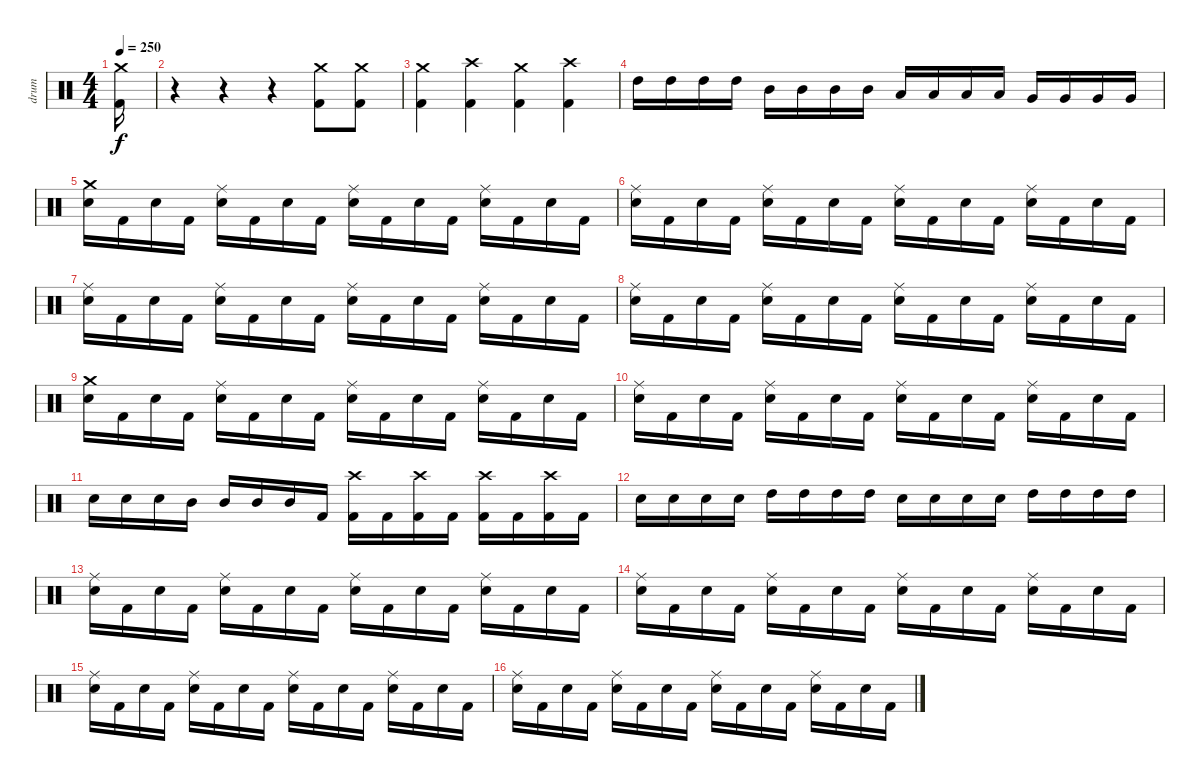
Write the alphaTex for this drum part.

\track ("drum" "drum") {instrument percussion}
\staff {score}
\articulation defaults
\ts (4 4)
\tempo 250
\clef neutral
\ks c
("Crash medium (hit)" "Kick (hit) 2").16{dy f} |
r.4 r.4 r.4 ("Crash medium (hit)" "Kick (hit) 2").8 ("Crash medium (hit)" "Kick (hit) 2").8 |
("Crash medium (hit)" "Kick (hit) 2").4 ("Crash high (hit)" "Kick (hit) 2").4 ("Crash medium (hit)" "Kick (hit) 2").4 ("Crash high (hit)" "Kick (hit) 2").4 |
"High Tom (hit)".16 "High Tom (hit)".16 "High Tom (hit)".16 "High Tom (hit)".16 "Mid Tom (hit)".16 "Mid Tom (hit)".16 "Mid Tom (hit)".16 "Mid Tom (hit)".16 "Low Tom (hit)".16 "Low Tom (hit)".16 "Low Tom (hit)".16 "Low Tom (hit)".16 "Very Low Tom (hit)".16 "Very Low Tom (hit)".16 "Very Low Tom (hit)".16 "Very Low Tom (hit)".16 |
("Crash medium (hit)" "Snare (hit) 2").16 "Kick (hit) 2".16 "Snare (hit) 2".16 "Kick (hit) 2".16 ("Ride (middle)" "Snare (hit) 2").16 "Kick (hit) 2".16 "Snare (hit) 2".16 "Kick (hit) 2".16 ("Ride (middle)" "Snare (hit) 2").16 "Kick (hit) 2".16 "Snare (hit) 2".16 "Kick (hit) 2".16 ("Ride (middle)" "Snare (hit) 2").16 "Kick (hit) 2".16 "Snare (hit) 2".16 "Kick (hit) 2".16 |
("Ride (middle)" "Snare (hit) 2").16 "Kick (hit) 2".16 "Snare (hit) 2".16 "Kick (hit) 2".16 ("Ride (middle)" "Snare (hit) 2").16 "Kick (hit) 2".16 "Snare (hit) 2".16 "Kick (hit) 2".16 ("Ride (middle)" "Snare (hit) 2").16 "Kick (hit) 2".16 "Snare (hit) 2".16 "Kick (hit) 2".16 ("Ride (middle)" "Snare (hit) 2").16 "Kick (hit) 2".16 "Snare (hit) 2".16 "Kick (hit) 2".16 |
("Ride (middle)" "Snare (hit) 2").16 "Kick (hit) 2".16 "Snare (hit) 2".16 "Kick (hit) 2".16 ("Ride (middle)" "Snare (hit) 2").16 "Kick (hit) 2".16 "Snare (hit) 2".16 "Kick (hit) 2".16 ("Ride (middle)" "Snare (hit) 2").16 "Kick (hit) 2".16 "Snare (hit) 2".16 "Kick (hit) 2".16 ("Ride (middle)" "Snare (hit) 2").16 "Kick (hit) 2".16 "Snare (hit) 2".16 "Kick (hit) 2".16 |
("Ride (middle)" "Snare (hit) 2").16 "Kick (hit) 2".16 "Snare (hit) 2".16 "Kick (hit) 2".16 ("Ride (middle)" "Snare (hit) 2").16 "Kick (hit) 2".16 "Snare (hit) 2".16 "Kick (hit) 2".16 ("Ride (middle)" "Snare (hit) 2").16 "Kick (hit) 2".16 "Snare (hit) 2".16 "Kick (hit) 2".16 ("Ride (middle)" "Snare (hit) 2").16 "Kick (hit) 2".16 "Snare (hit) 2".16 "Kick (hit) 2".16 |
("Crash medium (hit)" "Snare (hit) 2").16 "Kick (hit) 2".16 "Snare (hit) 2".16 "Kick (hit) 2".16 ("Ride (middle)" "Snare (hit) 2").16 "Kick (hit) 2".16 "Snare (hit) 2".16 "Kick (hit) 2".16 ("Ride (middle)" "Snare (hit) 2").16 "Kick (hit) 2".16 "Snare (hit) 2".16 "Kick (hit) 2".16 ("Ride (middle)" "Snare (hit) 2").16 "Kick (hit) 2".16 "Snare (hit) 2".16 "Kick (hit) 2".16 |
("Ride (middle)" "Snare (hit) 2").16 "Kick (hit) 2".16 "Snare (hit) 2".16 "Kick (hit) 2".16 ("Ride (middle)" "Snare (hit) 2").16 "Kick (hit) 2".16 "Snare (hit) 2".16 "Kick (hit) 2".16 ("Ride (middle)" "Snare (hit) 2").16 "Kick (hit) 2".16 "Snare (hit) 2".16 "Kick (hit) 2".16 ("Ride (middle)" "Snare (hit) 2").16 "Kick (hit) 2".16 "Snare (hit) 2".16 "Kick (hit) 2".16 |
"Snare (hit) 2".16 "Snare (hit) 2".16 "Snare (hit) 2".16 "Mid Tom (hit)".16 "Mid Tom (hit)".16 "Mid Tom (hit)".16 "Mid Tom (hit)".16 "Kick (hit) 2".16 ("Crash high (hit)" "Kick (hit) 2").16 "Kick (hit) 2".16 ("Crash high (hit)" "Kick (hit) 2").16 "Kick (hit) 2".16 ("Crash high (hit)" "Kick (hit) 2").16 "Kick (hit) 2".16 ("Crash high (hit)" "Kick (hit) 2").16 "Kick (hit) 2".16 |
"Snare (hit) 2".16 "Snare (hit) 2".16 "Snare (hit) 2".16 "Snare (hit) 2".16 "High Tom (hit)".16 "High Tom (hit)".16 "High Tom (hit)".16 "High Tom (hit)".16 "Snare (hit) 2".16 "Snare (hit) 2".16 "Snare (hit) 2".16 "Snare (hit) 2".16 "High Tom (hit)".16 "High Tom (hit)".16 "High Tom (hit)".16 "High Tom (hit)".16 |
("Ride (middle)" "Snare (hit) 2").16 "Kick (hit) 2".16 "Snare (hit) 2".16 "Kick (hit) 2".16 ("Ride (middle)" "Snare (hit) 2").16 "Kick (hit) 2".16 "Snare (hit) 2".16 "Kick (hit) 2".16 ("Ride (middle)" "Snare (hit) 2").16 "Kick (hit) 2".16 "Snare (hit) 2".16 "Kick (hit) 2".16 ("Ride (middle)" "Snare (hit) 2").16 "Kick (hit) 2".16 "Snare (hit) 2".16 "Kick (hit) 2".16 |
("Ride (middle)" "Snare (hit) 2").16 "Kick (hit) 2".16 "Snare (hit) 2".16 "Kick (hit) 2".16 ("Ride (middle)" "Snare (hit) 2").16 "Kick (hit) 2".16 "Snare (hit) 2".16 "Kick (hit) 2".16 ("Ride (middle)" "Snare (hit) 2").16 "Kick (hit) 2".16 "Snare (hit) 2".16 "Kick (hit) 2".16 ("Ride (middle)" "Snare (hit) 2").16 "Kick (hit) 2".16 "Snare (hit) 2".16 "Kick (hit) 2".16 |
("Ride (middle)" "Snare (hit) 2").16 "Kick (hit) 2".16 "Snare (hit) 2".16 "Kick (hit) 2".16 ("Ride (middle)" "Snare (hit) 2").16 "Kick (hit) 2".16 "Snare (hit) 2".16 "Kick (hit) 2".16 ("Ride (middle)" "Snare (hit) 2").16 "Kick (hit) 2".16 "Snare (hit) 2".16 "Kick (hit) 2".16 ("Ride (middle)" "Snare (hit) 2").16 "Kick (hit) 2".16 "Snare (hit) 2".16 "Kick (hit) 2".16 |
("Ride (middle)" "Snare (hit) 2").16 "Kick (hit) 2".16 "Snare (hit) 2".16 "Kick (hit) 2".16 ("Ride (middle)" "Snare (hit) 2").16 "Kick (hit) 2".16 "Snare (hit) 2".16 "Kick (hit) 2".16 ("Ride (middle)" "Snare (hit) 2").16 "Kick (hit) 2".16 "Snare (hit) 2".16 "Kick (hit) 2".16 ("Ride (middle)" "Snare (hit) 2").16 "Kick (hit) 2".16 "Snare (hit) 2".16 "Kick (hit) 2".16
